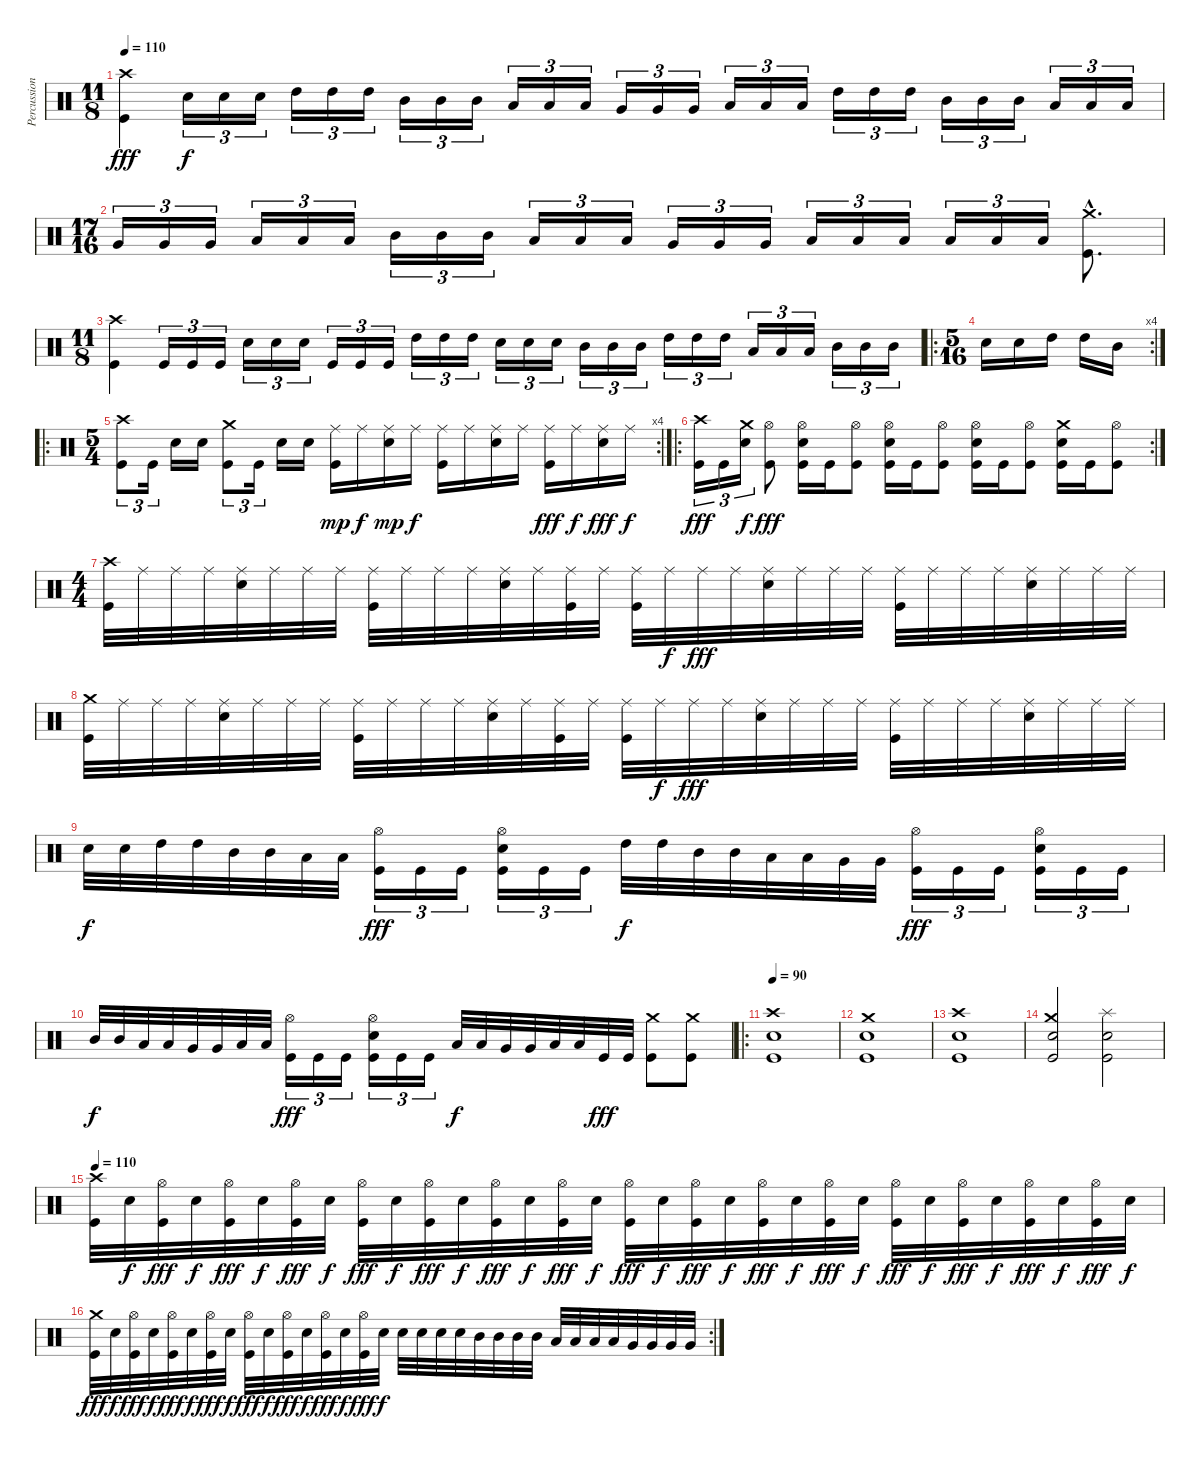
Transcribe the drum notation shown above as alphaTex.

\track ("Percussion" "Percussion") {instrument percussion}
\staff {score}
\articulation defaults
\ts (11 8)
\tempo 110
\clef neutral
\ks c
("Crash high (hit)" "Kick (hit)").4{dy fff} "Electric Snare (hit)".16{tu (3 2) dy f} "Electric Snare (hit)".16{tu (3 2)} "Electric Snare (hit)".16{tu (3 2)} "High Tom (hit)".16{tu (3 2)} "High Tom (hit)".16{tu (3 2)} "High Tom (hit)".16{tu (3 2)} "Mid Tom (hit)".16{tu (3 2)} "Mid Tom (hit)".16{tu (3 2)} "Mid Tom (hit)".16{tu (3 2)} "Low Tom (hit)".16{tu (3 2)} "Low Tom (hit)".16{tu (3 2)} "Low Tom (hit)".16{tu (3 2)} "Very Low Tom (hit)".16{tu (3 2)} "Very Low Tom (hit)".16{tu (3 2)} "Very Low Tom (hit)".16{tu (3 2)} "Low Floor Tom (hit)".16{tu (3 2)} "Low Floor Tom (hit)".16{tu (3 2)} "Low Floor Tom (hit)".16{tu (3 2)} "High Tom (hit)".16{tu (3 2)} "High Tom (hit)".16{tu (3 2)} "High Tom (hit)".16{tu (3 2)} "Mid Tom (hit)".16{tu (3 2)} "Mid Tom (hit)".16{tu (3 2)} "Mid Tom (hit)".16{tu (3 2)} "Low Tom (hit)".16{tu (3 2)} "Low Tom (hit)".16{tu (3 2)} "Low Tom (hit)".16{tu (3 2)} |
\ts (17 16)
"Very Low Tom (hit)".16{tu (3 2)} "Very Low Tom (hit)".16{tu (3 2)} "Very Low Tom (hit)".16{tu (3 2)} "Low Floor Tom (hit)".16{tu (3 2)} "Low Floor Tom (hit)".16{tu (3 2)} "Low Floor Tom (hit)".16{tu (3 2)} "Mid Tom (hit)".16{tu (3 2)} "Mid Tom (hit)".16{tu (3 2)} "Mid Tom (hit)".16{tu (3 2)} "Low Tom (hit)".16{tu (3 2)} "Low Tom (hit)".16{tu (3 2)} "Low Tom (hit)".16{tu (3 2)} "Very Low Tom (hit)".16{tu (3 2)} "Very Low Tom (hit)".16{tu (3 2)} "Very Low Tom (hit)".16{tu (3 2)} "Low Floor Tom (hit)".16{tu (3 2)} "Low Floor Tom (hit)".16{tu (3 2)} "Low Floor Tom (hit)".16{tu (3 2)} "Low Tom (hit)".16{tu (3 2)} "Low Tom (hit)".16{tu (3 2)} "Low Tom (hit)".16{tu (3 2)} ("Crash medium (hit)"{hac} "Kick (hit)"{hac}).8{d} |
\ts (11 8)
("Crash high (hit)" "Kick (hit)").4 "Kick (hit)".16{tu (3 2)} "Kick (hit)".16{tu (3 2)} "Kick (hit)".16{tu (3 2)} "Snare (hit) 2".16{tu (3 2)} "Snare (hit) 2".16{tu (3 2)} "Snare (hit) 2".16{tu (3 2)} "Kick (hit)".16{tu (3 2)} "Kick (hit)".16{tu (3 2)} "Kick (hit)".16{tu (3 2)} "High Tom (hit)".16{tu (3 2)} "High Tom (hit)".16{tu (3 2)} "High Tom (hit)".16{tu (3 2)} "Snare (hit) 2".16{tu (3 2)} "Snare (hit) 2".16{tu (3 2)} "Snare (hit) 2".16{tu (3 2)} "Mid Tom (hit)".16{tu (3 2)} "Mid Tom (hit)".16{tu (3 2)} "Mid Tom (hit)".16{tu (3 2)} "High Tom (hit)".16{tu (3 2)} "High Tom (hit)".16{tu (3 2)} "High Tom (hit)".16{tu (3 2)} "Low Tom (hit)".16{tu (3 2)} "Low Tom (hit)".16{tu (3 2)} "Low Tom (hit)".16{tu (3 2)} "Mid Tom (hit)".16{tu (3 2)} "Mid Tom (hit)".16{tu (3 2)} "Mid Tom (hit)".16{tu (3 2)} |
\ro
\rc 4
\ts (5 16)
"Snare (hit) 2".16 "Snare (hit) 2".16 "High Tom (hit)".16 "High Tom (hit)".16 "Mid Tom (hit)".16 |
\ro
\rc 4
\ts (5 4)
("Crash high (hit)" "Kick (hit)").8{tu (3 2)} "Kick (hit)".16{tu (3 2)} "Snare (hit) 2".16 "Snare (hit) 2".16 ("Crash medium (hit)" "Kick (hit)").8{tu (3 2)} "Kick (hit)".16{tu (3 2)} "Snare (hit) 2".16 "Snare (hit) 2".16 ("Ride (middle)" "Kick (hit)").16{dy mp} "Ride (middle)".16{dy f} ("Ride (middle)" "Snare (hit) 2").16{dy mp} "Ride (middle)".16{dy f} ("Ride (middle)" "Kick (hit)").16 "Ride (middle)".16 ("Ride (middle)" "Snare (hit) 2").16 "Ride (middle)".16 ("Ride (middle)" "Kick (hit)").16{dy fff} "Ride (middle)".16{dy f} ("Ride (middle)" "Snare (hit) 2").16{dy fff} "Ride (middle)".16{dy f} |
\ro
\rc 2
("Crash high (hit)" "Kick (hit)").16{tu (3 2) dy fff} "Kick (hit)".16{tu (3 2)} ("Crash medium (hit)" "Snare (hit) 2").16{tu (3 2) dy f} ("Hi-Hat (open)" "Kick (hit)").8{dy fff} ("Hi-Hat (open)" "Snare (hit) 2" "Kick (hit)").16 "Kick (hit)".16 ("Hi-Hat (open)" "Kick (hit)").8 ("Hi-Hat (open)" "Snare (hit) 2" "Kick (hit)").16 "Kick (hit)".16 ("Hi-Hat (open)" "Kick (hit)").8 ("Hi-Hat (open)" "Snare (hit) 2" "Kick (hit)").16 "Kick (hit)".16 ("Hi-Hat (open)" "Kick (hit)").8 ("Crash medium (hit)" "Snare (hit) 2" "Kick (hit)").16 "Kick (hit)".16 ("Hi-Hat (open)" "Kick (hit)").8 |
\ts (4 4)
("Crash high (hit)" "Kick (hit)").32 "Ride (middle)".32 "Ride (middle)".32 "Ride (middle)".32 ("Ride (middle)" "Snare (hit) 2").32 "Ride (middle)".32 "Ride (middle)".32 "Ride (middle)".32 ("Ride (middle)" "Kick (hit)").32 "Ride (middle)".32 "Ride (middle)".32 "Ride (middle)".32 ("Ride (middle)" "Snare (hit) 2").32 "Ride (middle)".32 ("Ride (middle)" "Kick (hit)").32 "Ride (middle)".32 ("Ride (middle)" "Kick (hit)").32 "Ride (middle)".32{dy f} "Ride (middle)".32{dy fff} "Ride (middle)".32 ("Ride (middle)" "Snare (hit) 2").32 "Ride (middle)".32 "Ride (middle)".32 "Ride (middle)".32 ("Ride (middle)" "Kick (hit)").32 "Ride (middle)".32 "Ride (middle)".32 "Ride (middle)".32 ("Ride (middle)" "Snare (hit) 2").32 "Ride (middle)".32 "Ride (middle)".32 "Ride (middle)".32 |
("Crash medium (hit)" "Kick (hit)").32 "Ride (middle)".32 "Ride (middle)".32 "Ride (middle)".32 ("Ride (middle)" "Snare (hit) 2").32 "Ride (middle)".32 "Ride (middle)".32 "Ride (middle)".32 ("Ride (middle)" "Kick (hit)").32 "Ride (middle)".32 "Ride (middle)".32 "Ride (middle)".32 ("Ride (middle)" "Snare (hit) 2").32 "Ride (middle)".32 ("Ride (middle)" "Kick (hit)").32 "Ride (middle)".32 ("Ride (middle)" "Kick (hit)").32 "Ride (middle)".32{dy f} "Ride (middle)".32{dy fff} "Ride (middle)".32 ("Ride (middle)" "Snare (hit) 2").32 "Ride (middle)".32 "Ride (middle)".32 "Ride (middle)".32 ("Ride (middle)" "Kick (hit)").32 "Ride (middle)".32 "Ride (middle)".32 "Ride (middle)".32 ("Ride (middle)" "Snare (hit) 2").32 "Ride (middle)".32 "Ride (middle)".32 "Ride (middle)".32 |
"Snare (hit) 2".32{dy f} "Snare (hit) 2".32 "High Tom (hit)".32 "High Tom (hit)".32 "Mid Tom (hit)".32 "Mid Tom (hit)".32 "Low Tom (hit)".32 "Low Tom (hit)".32 ("Hi-Hat (open)" "Kick (hit)").16{tu (3 2) dy fff} "Kick (hit)".16{tu (3 2)} "Kick (hit)".16{tu (3 2)} ("Hi-Hat (open)" "Snare (hit) 2" "Kick (hit)").16{tu (3 2)} "Kick (hit)".16{tu (3 2)} "Kick (hit)".16{tu (3 2)} "High Tom (hit)".32{dy f} "High Tom (hit)".32 "Mid Tom (hit)".32 "Mid Tom (hit)".32 "Low Tom (hit)".32 "Low Tom (hit)".32 "Very Low Tom (hit)".32 "Very Low Tom (hit)".32 ("Hi-Hat (open)" "Kick (hit)").16{tu (3 2) dy fff} "Kick (hit)".16{tu (3 2)} "Kick (hit)".16{tu (3 2)} ("Hi-Hat (open)" "Snare (hit) 2" "Kick (hit)").16{tu (3 2)} "Kick (hit)".16{tu (3 2)} "Kick (hit)".16{tu (3 2)} |
"Mid Tom (hit)".32{dy f} "Mid Tom (hit)".32 "Low Tom (hit)".32 "Low Tom (hit)".32 "Very Low Tom (hit)".32 "Very Low Tom (hit)".32 "Low Floor Tom (hit)".32 "Low Floor Tom (hit)".32 ("Hi-Hat (open)" "Kick (hit)").16{tu (3 2) dy fff} "Kick (hit)".16{tu (3 2)} "Kick (hit)".16{tu (3 2)} ("Hi-Hat (open)" "Snare (hit) 2" "Kick (hit)").16{tu (3 2)} "Kick (hit)".16{tu (3 2)} "Kick (hit)".16{tu (3 2)} "Low Tom (hit)".32{dy f} "Low Tom (hit)".32 "Very Low Tom (hit)".32 "Very Low Tom (hit)".32 "Low Floor Tom (hit)".32 "Low Floor Tom (hit)".32 "Kick (hit)".32{dy fff} "Kick (hit)".32 ("Crash medium (hit)" "Kick (hit)").8 ("Crash medium (hit)" "Kick (hit)").8 |
\ro
\tempo 90
("Crash high (hit)" "Snare (hit) 2" "Kick (hit)").1 |
("Crash medium (hit)" "Snare (hit) 2" "Kick (hit)").1 |
("Crash high (hit)" "Snare (hit) 2" "Kick (hit)").1 |
("Crash medium (hit)" "Snare (hit) 2" "Kick (hit)").2 ("Splash (hit)" "Snare (hit) 2" "Kick (hit)").2 |
\tempo 110
("Crash high (hit)" "Kick (hit)").32 "Electric Snare (hit)".32{dy f} ("Hi-Hat (open)" "Kick (hit)").32{dy fff} "Electric Snare (hit)".32{dy f} ("Hi-Hat (open)" "Kick (hit)").32{dy fff} "Electric Snare (hit)".32{dy f} ("Hi-Hat (open)" "Kick (hit)").32{dy fff} "Electric Snare (hit)".32{dy f} ("Hi-Hat (open)" "Kick (hit)").32{dy fff} "Electric Snare (hit)".32{dy f} ("Hi-Hat (open)" "Kick (hit)").32{dy fff} "Electric Snare (hit)".32{dy f} ("Hi-Hat (open)" "Kick (hit)").32{dy fff} "Electric Snare (hit)".32{dy f} ("Hi-Hat (open)" "Kick (hit)").32{dy fff} "Electric Snare (hit)".32{dy f} ("Hi-Hat (open)" "Kick (hit)").32{dy fff} "Electric Snare (hit)".32{dy f} ("Hi-Hat (open)" "Kick (hit)").32{dy fff} "Electric Snare (hit)".32{dy f} ("Hi-Hat (open)" "Kick (hit)").32{dy fff} "Electric Snare (hit)".32{dy f} ("Hi-Hat (open)" "Kick (hit)").32{dy fff} "Electric Snare (hit)".32{dy f} ("Hi-Hat (open)" "Kick (hit)").32{dy fff} "Electric Snare (hit)".32{dy f} ("Hi-Hat (open)" "Kick (hit)").32{dy fff} "Electric Snare (hit)".32{dy f} ("Hi-Hat (open)" "Kick (hit)").32{dy fff} "Electric Snare (hit)".32{dy f} ("Hi-Hat (open)" "Kick (hit)").32{dy fff} "Electric Snare (hit)".32{dy f} |
\rc 2
("Crash medium (hit)" "Kick (hit)").32{dy fff} "Electric Snare (hit)".32{dy f} ("Hi-Hat (open)" "Kick (hit)").32{dy fff} "Electric Snare (hit)".32{dy f} ("Hi-Hat (open)" "Kick (hit)").32{dy fff} "Electric Snare (hit)".32{dy f} ("Hi-Hat (open)" "Kick (hit)").32{dy fff} "Electric Snare (hit)".32{dy f} ("Hi-Hat (open)" "Kick (hit)").32{dy fff} "Electric Snare (hit)".32{dy f} ("Hi-Hat (open)" "Kick (hit)").32{dy fff} "Electric Snare (hit)".32{dy f} ("Hi-Hat (open)" "Kick (hit)").32{dy fff} "Electric Snare (hit)".32{dy f} ("Hi-Hat (open)" "Kick (hit)").32{dy fff} "Electric Snare (hit)".32{dy f} "Electric Snare (hit)".32 "Electric Snare (hit)".32 "Electric Snare (hit)".32 "Electric Snare (hit)".32 "Mid Tom (hit)".32 "Mid Tom (hit)".32 "Mid Tom (hit)".32 "Mid Tom (hit)".32 "Low Tom (hit)".32 "Low Tom (hit)".32 "Low Tom (hit)".32 "Low Tom (hit)".32 "Very Low Tom (hit)".32 "Very Low Tom (hit)".32 "Very Low Tom (hit)".32 "Very Low Tom (hit)".32
